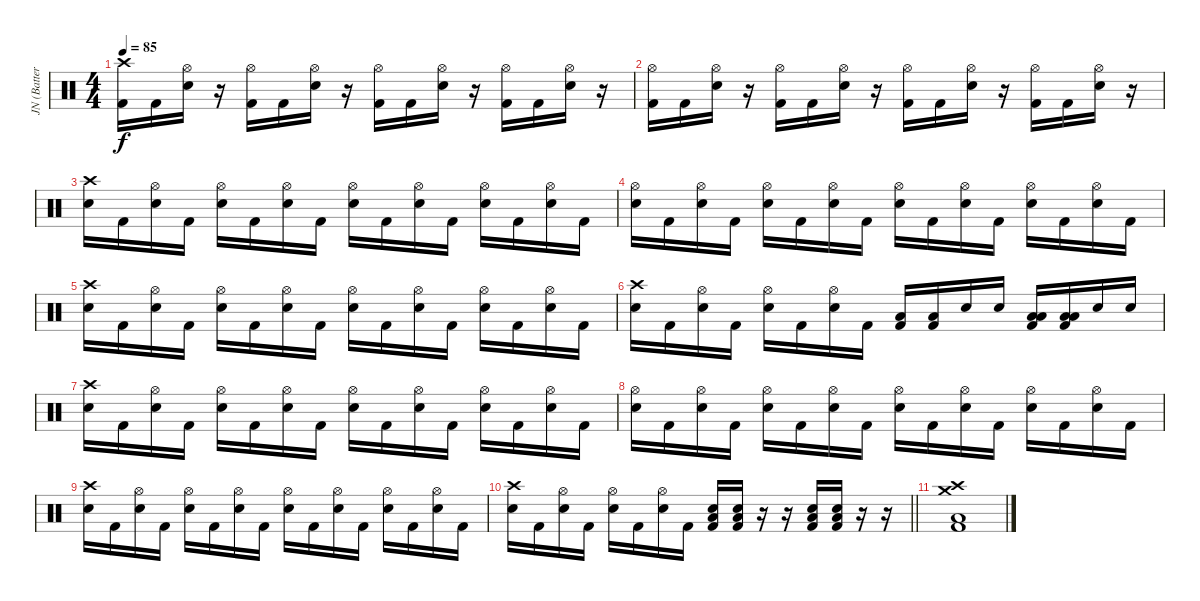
\track ("JN (Batterie)" "JN (Batter") {instrument percussion}
\staff {score}
\articulation defaults
\ts (4 4)
\tempo 85
\clef neutral
\ks c
("Crash high (hit)" "Kick (hit) 2").16{dy f} "Kick (hit) 2".16 ("Hi-Hat (open)" "Electric Snare (hit)").16 r.16 ("Hi-Hat (open)" "Kick (hit) 2").16 "Kick (hit) 2".16 ("Hi-Hat (open)" "Electric Snare (hit)").16 r.16 ("Hi-Hat (open)" "Kick (hit) 2").16 "Kick (hit) 2".16 ("Hi-Hat (open)" "Electric Snare (hit)").16 r.16 ("Hi-Hat (open)" "Kick (hit) 2").16 "Kick (hit) 2".16 ("Hi-Hat (open)" "Electric Snare (hit)").16 r.16 |
("Hi-Hat (open)" "Kick (hit) 2").16 "Kick (hit) 2".16 ("Hi-Hat (open)" "Electric Snare (hit)").16 r.16 ("Hi-Hat (open)" "Kick (hit) 2").16 "Kick (hit) 2".16 ("Hi-Hat (open)" "Electric Snare (hit)").16 r.16 ("Hi-Hat (open)" "Kick (hit) 2").16 "Kick (hit) 2".16 ("Hi-Hat (open)" "Electric Snare (hit)").16 r.16 ("Hi-Hat (open)" "Kick (hit) 2").16 "Kick (hit) 2".16 ("Hi-Hat (open)" "Electric Snare (hit)").16 r.16 |
("Crash high (hit)" "Electric Snare (hit)").16 "Kick (hit) 2".16 ("Hi-Hat (open)" "Electric Snare (hit)").16 "Kick (hit) 2".16 ("Hi-Hat (open)" "Electric Snare (hit)").16 "Kick (hit) 2".16 ("Hi-Hat (open)" "Electric Snare (hit)").16 "Kick (hit) 2".16 ("Hi-Hat (open)" "Electric Snare (hit)").16 "Kick (hit) 2".16 ("Hi-Hat (open)" "Electric Snare (hit)").16 "Kick (hit) 2".16 ("Hi-Hat (open)" "Electric Snare (hit)").16 "Kick (hit) 2".16 ("Hi-Hat (open)" "Electric Snare (hit)").16 "Kick (hit) 2".16 |
("Hi-Hat (open)" "Electric Snare (hit)").16 "Kick (hit) 2".16 ("Hi-Hat (open)" "Electric Snare (hit)").16 "Kick (hit) 2".16 ("Hi-Hat (open)" "Electric Snare (hit)").16 "Kick (hit) 2".16 ("Hi-Hat (open)" "Electric Snare (hit)").16 "Kick (hit) 2".16 ("Hi-Hat (open)" "Electric Snare (hit)").16 "Kick (hit) 2".16 ("Hi-Hat (open)" "Electric Snare (hit)").16 "Kick (hit) 2".16 ("Hi-Hat (open)" "Electric Snare (hit)").16 "Kick (hit) 2".16 ("Hi-Hat (open)" "Electric Snare (hit)").16 "Kick (hit) 2".16 |
("Crash high (hit)" "Electric Snare (hit)").16 "Kick (hit) 2".16 ("Hi-Hat (open)" "Electric Snare (hit)").16 "Kick (hit) 2".16 ("Hi-Hat (open)" "Electric Snare (hit)").16 "Kick (hit) 2".16 ("Hi-Hat (open)" "Electric Snare (hit)").16 "Kick (hit) 2".16 ("Hi-Hat (open)" "Electric Snare (hit)").16 "Kick (hit) 2".16 ("Hi-Hat (open)" "Electric Snare (hit)").16 "Kick (hit) 2".16 ("Hi-Hat (open)" "Electric Snare (hit)").16 "Kick (hit) 2".16 ("Hi-Hat (open)" "Electric Snare (hit)").16 "Kick (hit) 2".16 |
("Crash high (hit)" "Electric Snare (hit)").16 "Kick (hit) 2".16 ("Hi-Hat (open)" "Electric Snare (hit)").16 "Kick (hit) 2".16 ("Hi-Hat (open)" "Electric Snare (hit)").16 "Kick (hit) 2".16 ("Hi-Hat (open)" "Electric Snare (hit)").16 "Kick (hit) 2".16 ("Kick (hit) 2" "Low Tom (hit)").16 ("Kick (hit) 2" "Low Tom (hit)").16 "Electric Snare (hit)".16 "Electric Snare (hit)".16 ("Low Floor Tom (hit)" "Kick (hit) 2" "Low Tom (hit)").16 ("Low Floor Tom (hit)" "Kick (hit) 2" "Low Tom (hit)").16 "Electric Snare (hit)".16 "Electric Snare (hit)".16 |
("Crash high (hit)" "Electric Snare (hit)").16 "Kick (hit) 2".16 ("Hi-Hat (open)" "Electric Snare (hit)").16 "Kick (hit) 2".16 ("Hi-Hat (open)" "Electric Snare (hit)").16 "Kick (hit) 2".16 ("Hi-Hat (open)" "Electric Snare (hit)").16 "Kick (hit) 2".16 ("Hi-Hat (open)" "Electric Snare (hit)").16 "Kick (hit) 2".16 ("Hi-Hat (open)" "Electric Snare (hit)").16 "Kick (hit) 2".16 ("Hi-Hat (open)" "Electric Snare (hit)").16 "Kick (hit) 2".16 ("Hi-Hat (open)" "Electric Snare (hit)").16 "Kick (hit) 2".16 |
("Hi-Hat (open)" "Electric Snare (hit)").16 "Kick (hit) 2".16 ("Hi-Hat (open)" "Electric Snare (hit)").16 "Kick (hit) 2".16 ("Hi-Hat (open)" "Electric Snare (hit)").16 "Kick (hit) 2".16 ("Hi-Hat (open)" "Electric Snare (hit)").16 "Kick (hit) 2".16 ("Hi-Hat (open)" "Electric Snare (hit)").16 "Kick (hit) 2".16 ("Hi-Hat (open)" "Electric Snare (hit)").16 "Kick (hit) 2".16 ("Hi-Hat (open)" "Electric Snare (hit)").16 "Kick (hit) 2".16 ("Hi-Hat (open)" "Electric Snare (hit)").16 "Kick (hit) 2".16 |
("Crash high (hit)" "Electric Snare (hit)").16 "Kick (hit) 2".16 ("Hi-Hat (open)" "Electric Snare (hit)").16 "Kick (hit) 2".16 ("Hi-Hat (open)" "Electric Snare (hit)").16 "Kick (hit) 2".16 ("Hi-Hat (open)" "Electric Snare (hit)").16 "Kick (hit) 2".16 ("Hi-Hat (open)" "Electric Snare (hit)").16 "Kick (hit) 2".16 ("Hi-Hat (open)" "Electric Snare (hit)").16 "Kick (hit) 2".16 ("Hi-Hat (open)" "Electric Snare (hit)").16 "Kick (hit) 2".16 ("Hi-Hat (open)" "Electric Snare (hit)").16 "Kick (hit) 2".16 |
\barLineRight lightlight
("Crash high (hit)" "Electric Snare (hit)").16 "Kick (hit) 2".16 ("Hi-Hat (open)" "Electric Snare (hit)").16 "Kick (hit) 2".16 ("Hi-Hat (open)" "Electric Snare (hit)").16 "Kick (hit) 2".16 ("Hi-Hat (open)" "Electric Snare (hit)").16 "Kick (hit) 2".16 ("Electric Snare (hit)" "Kick (hit) 2" "Low Tom (hit)").16 ("Electric Snare (hit)" "Kick (hit) 2" "Low Tom (hit)").16 r.16 r.16 ("Electric Snare (hit)" "Kick (hit) 2" "Low Tom (hit)").16 ("Electric Snare (hit)" "Kick (hit) 2" "Low Tom (hit)").16 r.16 r.16 |
("Low Tom (hit)" "Crash medium (hit)" "Crash high (hit)" "Kick (hit) 2").1
